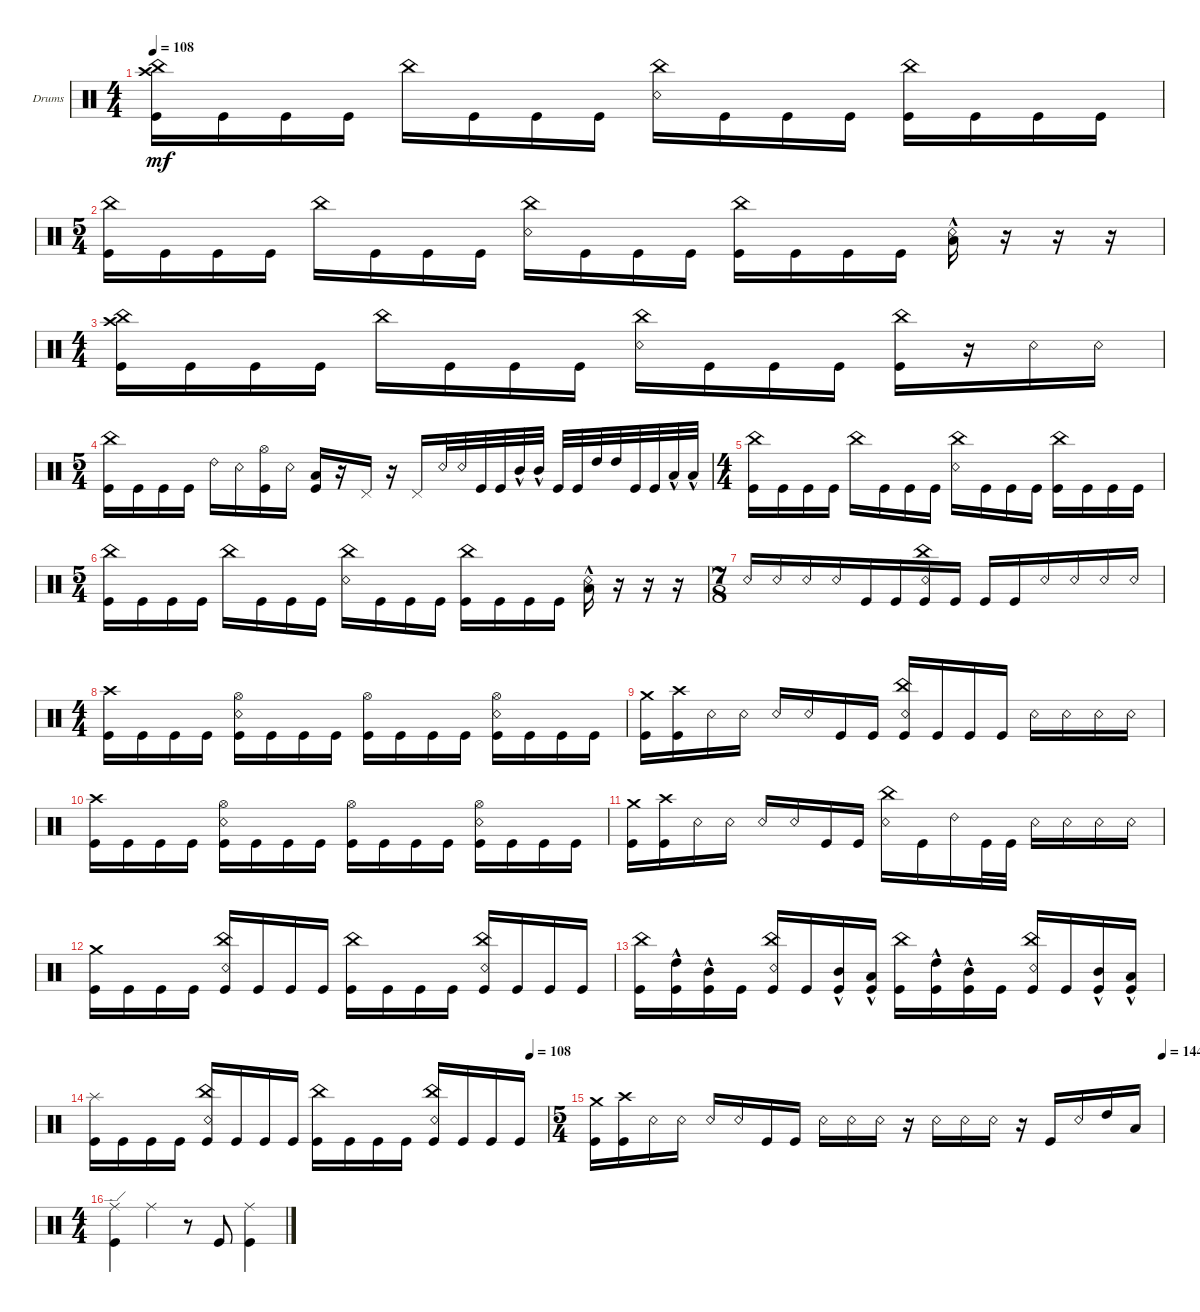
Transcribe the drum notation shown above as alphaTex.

\defaultSystemsLayout 4
\bracketExtendMode groupsimilarinstruments
\firstSystemTrackNameOrientation horizontal
\otherSystemsTrackNameOrientation horizontal
\track ("Drumkit" "Drums") {instrument percussion}
\staff {score}
\articulation defaults
\ts (4 4)
\tempo 108
\clef neutral
\ks c
("Kick (hit)" "China (hit)" "Crash high (hit)").16{dy mf} "Kick (hit)".16 "Kick (hit)".16 "Kick (hit)".16 "China (hit)".16 "Kick (hit)".16 "Kick (hit)".16 "Kick (hit)".16 ("Snare (rim shot)" "China (hit)").16 "Kick (hit)".16 "Kick (hit)".16 "Kick (hit)".16 ("Kick (hit)" "China (hit)").16 "Kick (hit)".16 "Kick (hit)".16 "Kick (hit)".16 |
\ts (5 4)
("Kick (hit)" "China (hit)").16 "Kick (hit)".16 "Kick (hit)".16 "Kick (hit)".16 "China (hit)".16 "Kick (hit)".16 "Kick (hit)".16 "Kick (hit)".16 ("Snare (rim shot)" "China (hit)").16 "Kick (hit)".16 "Kick (hit)".16 "Kick (hit)".16 ("Kick (hit)" "China (hit)").16 "Kick (hit)".16 "Kick (hit)".16 "Kick (hit)".16 ("Snare (rim shot)"{hac} "Low Tom (hit)"{hac}).16 r.16 r.16 r.16 |
\ts (4 4)
("Kick (hit)" "China (hit)" "Crash high (hit)").16 "Kick (hit)".16 "Kick (hit)".16 "Kick (hit)".16 "China (hit)".16 "Kick (hit)".16 "Kick (hit)".16 "Kick (hit)".16 ("Snare (rim shot)" "China (hit)").16 "Kick (hit)".16 "Kick (hit)".16 "Kick (hit)".16 ("Kick (hit)" "China (hit)").16 r.16 "Snare (rim shot)".16 "Snare (rim shot)".16 |
\ts (5 4)
("Kick (hit)" "China (hit)").16 "Kick (hit)".16 "Kick (hit)".16 "Kick (hit)".16 "Ride (bell) 2".16 "Snare (rim shot)".16 ("Kick (hit)" "Hi-Hat (open)").16 "Snare (rim shot)".16 ("Kick (hit)" "Low Tom (hit)").16 r.16 "Pedal Hi-Hat (hit)".16 r.16 "Pedal Hi-Hat (hit)".16 "Snare (rim shot)".32 "Snare (rim shot)".32 "Kick (hit)".32 "Kick (hit)".32 "Mid Tom (hit)"{hac}.32 "Mid Tom (hit)"{hac}.32 "Kick (hit)".32 "Kick (hit)".32 "High Tom (hit)".32 "High Tom (hit)".32 "Kick (hit)".32 "Kick (hit)".32 "Low Tom (hit)"{hac}.32 "Low Tom (hit)"{hac}.32 |
\ts (4 4)
("Kick (hit)" "China (hit)").16 "Kick (hit)".16 "Kick (hit)".16 "Kick (hit)".16 "China (hit)".16 "Kick (hit)".16 "Kick (hit)".16 "Kick (hit)".16 ("Snare (rim shot)" "China (hit)").16 "Kick (hit)".16 "Kick (hit)".16 "Kick (hit)".16 ("Kick (hit)" "China (hit)").16 "Kick (hit)".16 "Kick (hit)".16 "Kick (hit)".16 |
\ts (5 4)
("Kick (hit)" "China (hit)").16 "Kick (hit)".16 "Kick (hit)".16 "Kick (hit)".16 "China (hit)".16 "Kick (hit)".16 "Kick (hit)".16 "Kick (hit)".16 ("Snare (rim shot)" "China (hit)").16 "Kick (hit)".16 "Kick (hit)".16 "Kick (hit)".16 ("Kick (hit)" "China (hit)").16 "Kick (hit)".16 "Kick (hit)".16 "Kick (hit)".16 ("Snare (rim shot)"{hac} "Low Tom (hit)"{hac}).16 r.16 r.16 r.16 |
\ts (7 8)
"Snare (rim shot)".16 "Snare (rim shot)".16 "Snare (rim shot)".16 "Snare (rim shot)".16 "Kick (hit)".16 "Kick (hit)".16 ("Kick (hit)" "Snare (rim shot)" "China (hit)").16 "Kick (hit)".16 "Kick (hit)".16 "Kick (hit)".16 "Snare (rim shot)".16 "Snare (rim shot)".16 "Snare (rim shot)".16 "Snare (rim shot)".16 |
\ts (4 4)
("Kick (hit)" "Crash high (hit)").16 "Kick (hit)".16 "Kick (hit)".16 "Kick (hit)".16 ("Kick (hit)" "Snare (rim shot)" "Hi-Hat (open)").16 "Kick (hit)".16 "Kick (hit)".16 "Kick (hit)".16 ("Kick (hit)" "Hi-Hat (open)").16 "Kick (hit)".16 "Kick (hit)".16 "Kick (hit)".16 ("Kick (hit)" "Snare (rim shot)" "Hi-Hat (open)").16 "Kick (hit)".16 "Kick (hit)".16 "Kick (hit)".16 |
("Kick (hit)" "Crash medium (hit)").16 ("Kick (hit)" "Crash high (hit)").16 "Snare (rim shot)".16 "Snare (rim shot)".16 "Snare (rim shot)".16 "Snare (rim shot)".16 "Kick (hit)".16 "Kick (hit)".16 ("Kick (hit)" "Snare (rim shot)" "China (hit)").16 "Kick (hit)".16 "Kick (hit)".16 "Kick (hit)".16 "Snare (rim shot)".16 "Snare (rim shot)".16 "Snare (rim shot)".16 "Snare (rim shot)".16 |
("Kick (hit)" "Crash high (hit)").16 "Kick (hit)".16 "Kick (hit)".16 "Kick (hit)".16 ("Kick (hit)" "Snare (rim shot)" "Hi-Hat (open)").16 "Kick (hit)".16 "Kick (hit)".16 "Kick (hit)".16 ("Kick (hit)" "Hi-Hat (open)").16 "Kick (hit)".16 "Kick (hit)".16 "Kick (hit)".16 ("Kick (hit)" "Snare (rim shot)" "Hi-Hat (open)").16 "Kick (hit)".16 "Kick (hit)".16 "Kick (hit)".16 |
("Kick (hit)" "Crash medium (hit)").16 ("Kick (hit)" "Crash high (hit)").16 "Snare (rim shot)".16 "Snare (rim shot)".16 "Snare (rim shot)".16 "Snare (rim shot)".16 "Kick (hit)".16 "Kick (hit)".16 ("Snare (rim shot)" "China (hit)").16 "Kick (hit)".16 "Ride (bell) 2".16 "Kick (hit)".32 "Kick (hit)".32 "Snare (rim shot)".16 "Snare (rim shot)".16 "Snare (rim shot)".16 "Snare (rim shot)".16 |
("Kick (hit)" "Crash medium (hit)").16 "Kick (hit)".16 "Kick (hit)".16 "Kick (hit)".16 ("Kick (hit)" "China (hit)" "Snare (rim shot)").16 "Kick (hit)".16 "Kick (hit)".16 "Kick (hit)".16 ("Kick (hit)" "China (hit)").16 "Kick (hit)".16 "Kick (hit)".16 "Kick (hit)".16 ("Kick (hit)" "China (hit)" "Snare (rim shot)").16 "Kick (hit)".16 "Kick (hit)".16 "Kick (hit)".16 |
("Kick (hit)" "China (hit)").16 ("Kick (hit)" "High Tom (hit)"{hac}).16 ("Kick (hit)" "Mid Tom (hit)"{hac}).16 "Kick (hit)".16 ("Snare (rim shot)" "China (hit)" "Kick (hit)").16 "Kick (hit)".16 ("Kick (hit)" "Mid Tom (hit)"{hac}).16 ("Kick (hit)" "Low Tom (hit)"{hac}).16 ("Kick (hit)" "China (hit)").16 ("Kick (hit)" "High Tom (hit)"{hac}).16 ("Kick (hit)" "Mid Tom (hit)"{hac}).16 "Kick (hit)".16 ("Kick (hit)" "China (hit)" "Snare (rim shot)").16 "Kick (hit)".16 ("Kick (hit)" "Mid Tom (hit)"{hac}).16 ("Kick (hit)" "Low Tom (hit)"{hac}).16 |
\tempo (108 0.9625)
("Kick (hit)" "Splash (hit)").16 "Kick (hit)".16 "Kick (hit)".16 "Kick (hit)".16 ("Kick (hit)" "China (hit)" "Snare (rim shot)").16 "Kick (hit)".16 "Kick (hit)".16 "Kick (hit)".16 ("Kick (hit)" "China (hit)").16 "Kick (hit)".16 "Kick (hit)".16 "Kick (hit)".16 ("Kick (hit)" "China (hit)" "Snare (rim shot)").16 "Kick (hit)".16 "Kick (hit)".16 "Kick (hit)".16 |
\ts (5 4)
\tempo (144.988 1)
("Kick (hit)" "Crash medium (hit)").16 ("Kick (hit)" "Crash high (hit)").16 "Snare (rim shot)".16 "Snare (rim shot)".16 "Snare (rim shot)".16 "Snare (rim shot)".16 "Kick (hit)".16 "Kick (hit)".16 "Snare (rim shot)".16 "Snare (rim shot)".16 "Snare (rim shot)".16 r.16 "Snare (rim shot)".16 "Snare (rim shot)".16 "Snare (rim shot)".16 r.16 "Kick (hit)".16 "Snare (rim shot)".16 "High Tom (hit)".16 "Low Tom (hit)".16 |
\ts (4 4)
("Kick (hit)" "Ride (edge)").4 "Ride (middle)".4 r.8 "Kick (hit)".8 ("Ride (middle)" "Kick (hit)").4
